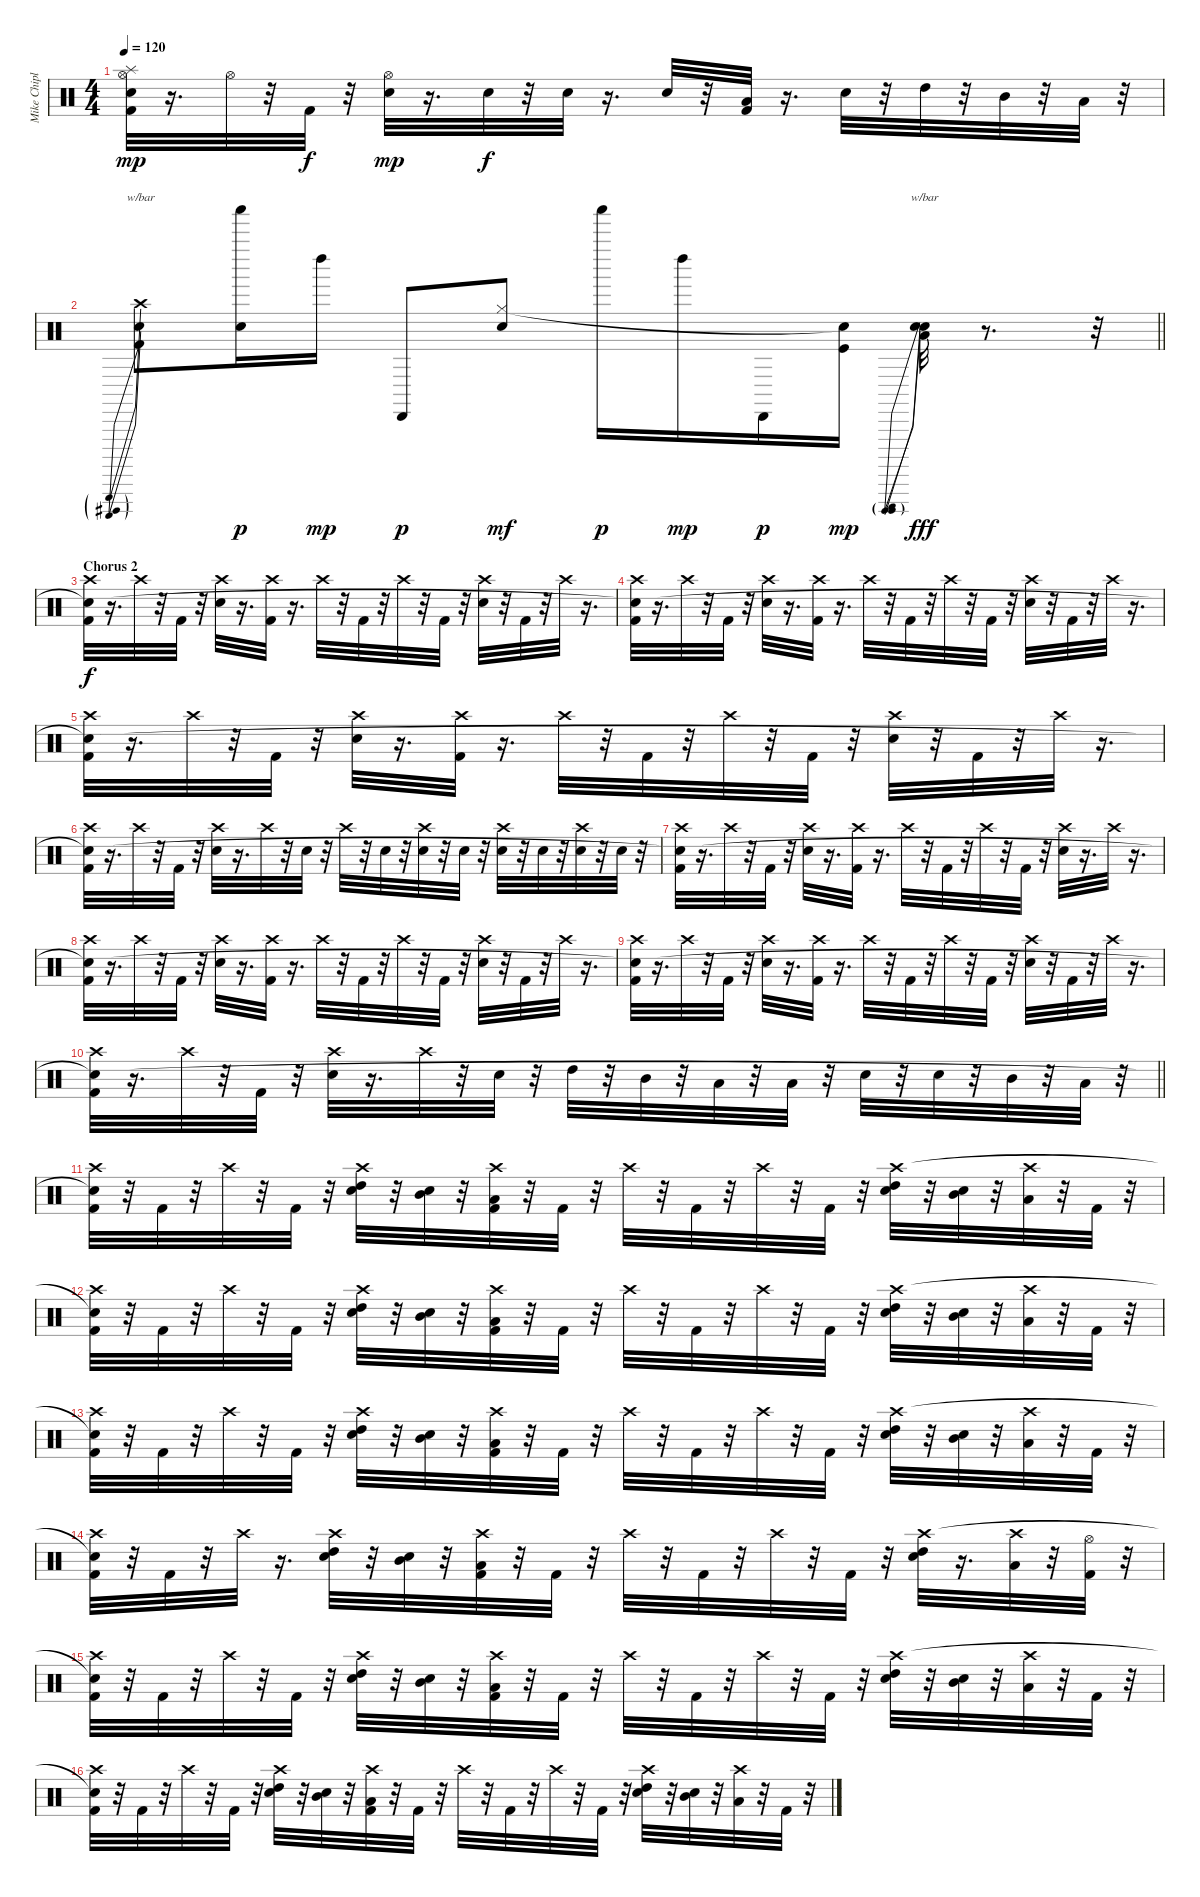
\track ("Mike Chiplin - Drums" "Mike Chipl") {instrument percussion}
\staff {score}
\articulation defaults
\ts (4 4)
\tempo 120
\clef neutral
\ks c
("Kick (hit) 2" "Hi-Hat (open)" "Splash (hit)" "Snare (hit)"{t}).32{dy mp} r.16{d} "Hi-Hat (open)".32 r.32 "Kick (hit) 2".32{dy f} r.32 ("Snare (hit) 2" "Hi-Hat (open)").32{dy mp} r.16{d} "Snare (hit) 2".32{dy f} r.32 "Snare (hit) 2".32 r.16{d} "Snare (hit) 2".32 r.32 ("Kick (hit) 2" "Low Tom (hit)").32 r.16{d} "Snare (hit) 2".32 r.32 "High Tom (hit)".32 r.32 "Mid Tom (hit)".32 r.32 "Low Tom (hit)".32 r.32 |
\barLineRight lightlight
("Kick (hit) 2" "Crash high (hit)" "Snare (hit)").8{tbe (predive default 0 -8 60 -8)} ("Shaker (hit)" "Snare (hit)"{t}).16{dy p} "Left Maraca (hit)".16{dy mp} "Cabasa (hit)".8{dy p} ("Snare (hit) 2" "Hi-Hat (closed)").8{dy mf} "Shaker (hit)".16{dy p} "Left Maraca (hit)".16{dy mp} "Cabasa (hit)".16{dy p} ("Kick (hit)" "Snare (hit)"{t}).16{dy mp} ("Snare (hit) 2" "Low Tom (hit)" "Snare (hit)").32{tbe (predive default 0 -4 60 -4) dy fff} r.8{d} r.32 |
\section ("" "Chorus 2")
("Kick (hit) 2" "Crash high (hit)" "Snare (hit)"{t}).32{dy f} r.16{d} "Crash high (hit)".32 r.32 "Kick (hit) 2".32 r.32 ("Snare (hit) 2" "Crash high (hit)").32 r.16{d} ("Kick (hit) 2" "Crash high (hit)").32 r.16{d} "Crash high (hit)".32 r.32 "Kick (hit) 2".32 r.32 "Crash high (hit)".32 r.32 "Kick (hit) 2".32 r.32 ("Snare (hit) 2" "Crash high (hit)").32 r.32 "Kick (hit) 2".32 r.32 "Crash high (hit)".32 r.16{d} |
("Kick (hit) 2" "Crash high (hit)" "Snare (hit)"{t}).32 r.16{d} "Crash high (hit)".32 r.32 "Kick (hit) 2".32 r.32 ("Snare (hit) 2" "Crash high (hit)").32 r.16{d} ("Kick (hit) 2" "Crash high (hit)").32 r.16{d} "Crash high (hit)".32 r.32 "Kick (hit) 2".32 r.32 "Crash high (hit)".32 r.32 "Kick (hit) 2".32 r.32 ("Snare (hit) 2" "Crash high (hit)").32 r.32 "Kick (hit) 2".32 r.32 "Crash high (hit)".32 r.16{d} |
("Kick (hit) 2" "Crash high (hit)" "Snare (hit)"{t}).32 r.16{d} "Crash high (hit)".32 r.32 "Kick (hit) 2".32 r.32 ("Snare (hit) 2" "Crash high (hit)").32 r.16{d} ("Kick (hit) 2" "Crash high (hit)").32 r.16{d} "Crash high (hit)".32 r.32 "Kick (hit) 2".32 r.32 "Crash high (hit)".32 r.32 "Kick (hit) 2".32 r.32 ("Snare (hit) 2" "Crash high (hit)").32 r.32 "Kick (hit) 2".32 r.32 "Crash high (hit)".32 r.16{d} |
("Kick (hit) 2" "Crash high (hit)" "Snare (hit)"{t}).32 r.16{d} "Crash high (hit)".32 r.32 "Kick (hit) 2".32 r.32 ("Snare (hit) 2" "Crash high (hit)").32 r.16{d} "Crash high (hit)".32 r.32 "Snare (hit) 2".32 r.32 "Crash high (hit)".32 r.32 "Snare (hit) 2".32 r.32 ("Snare (hit) 2" "Crash high (hit)").32 r.32 "Snare (hit) 2".32 r.32 ("Snare (hit) 2" "Crash high (hit)").32 r.32 "Snare (hit) 2".32 r.32 ("Snare (hit) 2" "Crash high (hit)").32 r.32 "Snare (hit) 2".32 r.32 |
("Kick (hit) 2" "Crash high (hit)" "Snare (hit)"{t}).32 r.16{d} "Crash high (hit)".32 r.32 "Kick (hit) 2".32 r.32 ("Snare (hit) 2" "Crash high (hit)").32 r.16{d} ("Kick (hit) 2" "Crash high (hit)").32 r.16{d} "Crash high (hit)".32 r.32 "Kick (hit) 2".32 r.32 "Crash high (hit)".32 r.32 "Kick (hit) 2".32 r.32 ("Snare (hit) 2" "Crash high (hit)").32 r.16{d} "Crash high (hit)".32 r.16{d} |
("Kick (hit) 2" "Crash high (hit)" "Snare (hit)"{t}).32 r.16{d} "Crash high (hit)".32 r.32 "Kick (hit) 2".32 r.32 ("Snare (hit) 2" "Crash high (hit)").32 r.16{d} ("Kick (hit) 2" "Crash high (hit)").32 r.16{d} "Crash high (hit)".32 r.32 "Kick (hit) 2".32 r.32 "Crash high (hit)".32 r.32 "Kick (hit) 2".32 r.32 ("Snare (hit) 2" "Crash high (hit)").32 r.32 "Kick (hit) 2".32 r.32 "Crash high (hit)".32 r.16{d} |
("Kick (hit) 2" "Crash high (hit)" "Snare (hit)"{t}).32 r.16{d} "Crash high (hit)".32 r.32 "Kick (hit) 2".32 r.32 ("Snare (hit) 2" "Crash high (hit)").32 r.16{d} ("Kick (hit) 2" "Crash high (hit)").32 r.16{d} "Crash high (hit)".32 r.32 "Kick (hit) 2".32 r.32 "Crash high (hit)".32 r.32 "Kick (hit) 2".32 r.32 ("Snare (hit) 2" "Crash high (hit)").32 r.32 "Kick (hit) 2".32 r.32 "Crash high (hit)".32 r.16{d} |
\barLineRight lightlight
("Kick (hit) 2" "Crash high (hit)" "Snare (hit)"{t}).32 r.16{d} "Crash high (hit)".32 r.32 "Kick (hit) 2".32 r.32 ("Snare (hit) 2" "Crash high (hit)").32 r.16{d} "Crash high (hit)".32 r.32 "Snare (hit) 2".32 r.32 "High Tom (hit)".32 r.32 "Mid Tom (hit)".32 r.32 "Low Tom (hit)".32 r.32 "Low Tom (hit)".32 r.32 "Snare (hit) 2".32 r.32 "Snare (hit) 2".32 r.32 "Mid Tom (hit)".32 r.32 "Low Tom (hit)".32 r.32 |
("Kick (hit) 2" "Crash high (hit)" "Snare (hit)"{t}).32 r.32 "Kick (hit) 2".32 r.32 "Crash high (hit)".32 r.32 "Kick (hit) 2".32 r.32 ("Snare (hit) 2" "High Tom (hit)" "Crash high (hit)").32 r.32 ("Snare (hit) 2" "Mid Tom (hit)").32 r.32 ("Kick (hit) 2" "Low Tom (hit)" "Crash high (hit)").32 r.32 "Kick (hit) 2".32 r.32 "Crash high (hit)".32 r.32 "Kick (hit) 2".32 r.32 "Crash high (hit)".32 r.32 "Kick (hit) 2".32 r.32 ("Snare (hit) 2" "High Tom (hit)" "Crash high (hit)").32 r.32 ("Snare (hit) 2" "Mid Tom (hit)").32 r.32 ("Low Tom (hit)" "Crash high (hit)").32 r.32 "Kick (hit) 2".32 r.32 |
("Kick (hit) 2" "Crash high (hit)" "Snare (hit)"{t}).32 r.32 "Kick (hit) 2".32 r.32 "Crash high (hit)".32 r.32 "Kick (hit) 2".32 r.32 ("Snare (hit) 2" "High Tom (hit)" "Crash high (hit)").32 r.32 ("Snare (hit) 2" "Mid Tom (hit)").32 r.32 ("Kick (hit) 2" "Low Tom (hit)" "Crash high (hit)").32 r.32 "Kick (hit) 2".32 r.32 "Crash high (hit)".32 r.32 "Kick (hit) 2".32 r.32 "Crash high (hit)".32 r.32 "Kick (hit) 2".32 r.32 ("Snare (hit) 2" "High Tom (hit)" "Crash high (hit)").32 r.32 ("Snare (hit) 2" "Mid Tom (hit)").32 r.32 ("Low Tom (hit)" "Crash high (hit)").32 r.32 "Kick (hit) 2".32 r.32 |
("Kick (hit) 2" "Crash high (hit)" "Snare (hit)"{t}).32 r.32 "Kick (hit) 2".32 r.32 "Crash high (hit)".32 r.32 "Kick (hit) 2".32 r.32 ("Snare (hit) 2" "High Tom (hit)" "Crash high (hit)").32 r.32 ("Snare (hit) 2" "Mid Tom (hit)").32 r.32 ("Kick (hit) 2" "Low Tom (hit)" "Crash high (hit)").32 r.32 "Kick (hit) 2".32 r.32 "Crash high (hit)".32 r.32 "Kick (hit) 2".32 r.32 "Crash high (hit)".32 r.32 "Kick (hit) 2".32 r.32 ("Snare (hit) 2" "High Tom (hit)" "Crash high (hit)").32 r.32 ("Snare (hit) 2" "Mid Tom (hit)").32 r.32 ("Low Tom (hit)" "Crash high (hit)").32 r.32 "Kick (hit) 2".32 r.32 |
("Kick (hit) 2" "Crash high (hit)" "Snare (hit)"{t}).32 r.32 "Kick (hit) 2".32 r.32 "Crash high (hit)".32 r.16{d} ("Snare (hit) 2" "High Tom (hit)" "Crash high (hit)").32 r.32 ("Snare (hit) 2" "Mid Tom (hit)").32 r.32 ("Kick (hit) 2" "Low Tom (hit)" "Crash high (hit)").32 r.32 "Kick (hit) 2".32 r.32 "Crash high (hit)".32 r.32 "Kick (hit) 2".32 r.32 "Crash high (hit)".32 r.32 "Kick (hit) 2".32 r.32 ("Snare (hit) 2" "High Tom (hit)" "Crash high (hit)").32 r.16{d} ("Low Tom (hit)" "Crash high (hit)").32 r.32 ("Kick (hit) 2" "Hi-Hat (open)").32 r.32 |
("Kick (hit) 2" "Crash high (hit)" "Snare (hit)"{t}).32 r.32 "Kick (hit) 2".32 r.32 "Crash high (hit)".32 r.32 "Kick (hit) 2".32 r.32 ("Snare (hit) 2" "High Tom (hit)" "Crash high (hit)").32 r.32 ("Snare (hit) 2" "Mid Tom (hit)").32 r.32 ("Kick (hit) 2" "Low Tom (hit)" "Crash high (hit)").32 r.32 "Kick (hit) 2".32 r.32 "Crash high (hit)".32 r.32 "Kick (hit) 2".32 r.32 "Crash high (hit)".32 r.32 "Kick (hit) 2".32 r.32 ("Snare (hit) 2" "High Tom (hit)" "Crash high (hit)").32 r.32 ("Snare (hit) 2" "Mid Tom (hit)").32 r.32 ("Low Tom (hit)" "Crash high (hit)").32 r.32 "Kick (hit) 2".32 r.32 |
("Kick (hit) 2" "Crash high (hit)" "Snare (hit)"{t}).32 r.32 "Kick (hit) 2".32 r.32 "Crash high (hit)".32 r.32 "Kick (hit) 2".32 r.32 ("Snare (hit) 2" "High Tom (hit)" "Crash high (hit)").32 r.32 ("Snare (hit) 2" "Mid Tom (hit)").32 r.32 ("Kick (hit) 2" "Low Tom (hit)" "Crash high (hit)").32 r.32 "Kick (hit) 2".32 r.32 "Crash high (hit)".32 r.32 "Kick (hit) 2".32 r.32 "Crash high (hit)".32 r.32 "Kick (hit) 2".32 r.32 ("Snare (hit) 2" "High Tom (hit)" "Crash high (hit)").32 r.32 ("Snare (hit) 2" "Mid Tom (hit)").32 r.32 ("Low Tom (hit)" "Crash high (hit)").32 r.32 "Kick (hit) 2".32 r.32
